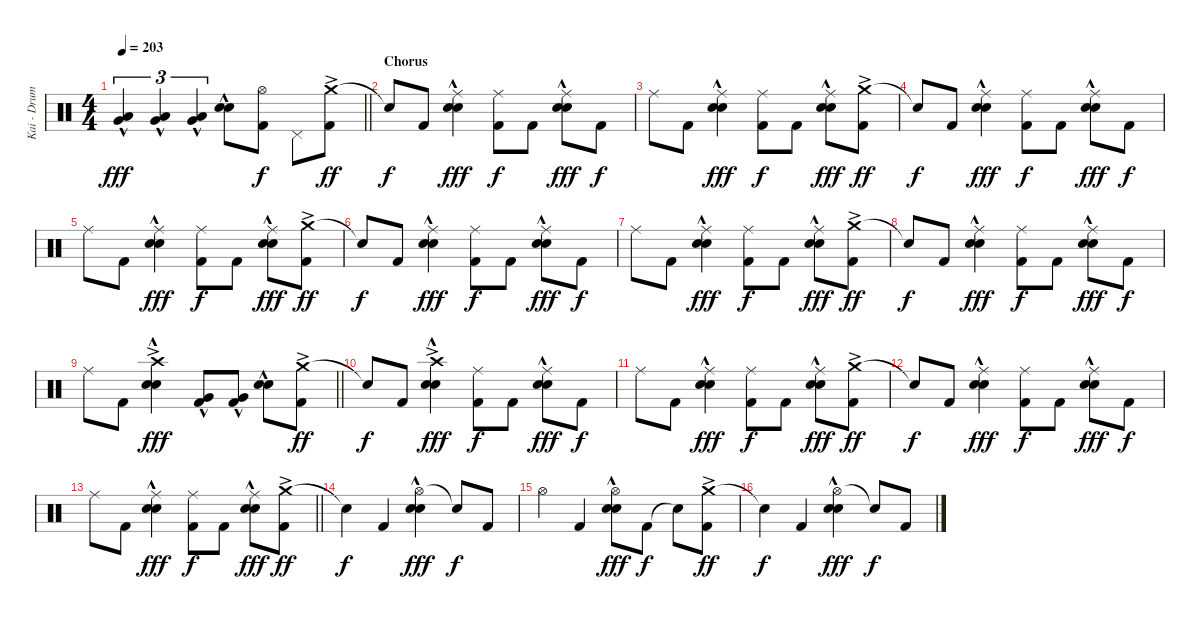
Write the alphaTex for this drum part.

\track ("Kai - Drums" "Kai - Drum") {instrument percussion}
\staff {score}
\articulation defaults
\ts (4 4)
\tempo 203
\clef neutral
\barLineRight lightlight
\ks c
("Low Tom (hit)"{hac} "Very Low Tom (hit)"{hac}).4{tu (3 2) dy fff} ("Low Tom (hit)"{hac} "Very Low Tom (hit)"{hac}).4{tu (3 2)} ("Low Tom (hit)"{hac} "Very Low Tom (hit)"{hac}).4{tu (3 2)} ("Electric Snare (hit)"{hac} "Snare (hit) 2"{hac}).8 ("Hi-Hat (open)" "Kick (hit) 2").8{dy f} "Pedal Hi-Hat (hit)".8 ("Crash medium (hit)"{ac} "Kick (hit) 2").8{dy ff} |
\section ("" "Chorus")
"Snare (hit)"{t}.8{dy f} "Kick (hit) 2".8 ("Ride (middle)" "Electric Snare (hit)"{hac} "Snare (hit) 2"{hac}).4{dy fff} ("Ride (middle)" "Kick (hit) 2").8{dy f} "Kick (hit) 2".8 ("Ride (middle)" "Electric Snare (hit)"{hac} "Snare (hit) 2"{hac}).8{dy fff} "Kick (hit) 2".8{dy f} |
"Ride (middle)".8 "Kick (hit) 2".8 ("Ride (middle)" "Electric Snare (hit)"{hac} "Snare (hit) 2"{hac}).4{dy fff} ("Ride (middle)" "Kick (hit) 2").8{dy f} "Kick (hit) 2".8 ("Ride (middle)" "Electric Snare (hit)"{hac} "Snare (hit) 2"{hac}).8{dy fff} ("Crash medium (hit)"{ac} "Kick (hit) 2").8{dy ff} |
"Snare (hit)"{t}.8{dy f} "Kick (hit) 2".8 ("Ride (middle)" "Electric Snare (hit)"{hac} "Snare (hit) 2"{hac}).4{dy fff} ("Ride (middle)" "Kick (hit) 2").8{dy f} "Kick (hit) 2".8 ("Ride (middle)" "Electric Snare (hit)"{hac} "Snare (hit) 2"{hac}).8{dy fff} "Kick (hit) 2".8{dy f} |
"Ride (middle)".8 "Kick (hit) 2".8 ("Ride (middle)" "Electric Snare (hit)"{hac} "Snare (hit) 2"{hac}).4{dy fff} ("Ride (middle)" "Kick (hit) 2").8{dy f} "Kick (hit) 2".8 ("Ride (middle)" "Electric Snare (hit)"{hac} "Snare (hit) 2"{hac}).8{dy fff} ("Crash medium (hit)"{ac} "Kick (hit) 2").8{dy ff} |
"Snare (hit)"{t}.8{dy f} "Kick (hit) 2".8 ("Ride (middle)" "Electric Snare (hit)"{hac} "Snare (hit) 2"{hac}).4{dy fff} ("Ride (middle)" "Kick (hit) 2").8{dy f} "Kick (hit) 2".8 ("Ride (middle)" "Electric Snare (hit)"{hac} "Snare (hit) 2"{hac}).8{dy fff} "Kick (hit) 2".8{dy f} |
"Ride (middle)".8 "Kick (hit) 2".8 ("Ride (middle)" "Electric Snare (hit)"{hac} "Snare (hit) 2"{hac}).4{dy fff} ("Ride (middle)" "Kick (hit) 2").8{dy f} "Kick (hit) 2".8 ("Ride (middle)" "Electric Snare (hit)"{hac} "Snare (hit) 2"{hac}).8{dy fff} ("Crash medium (hit)"{ac} "Kick (hit) 2").8{dy ff} |
"Snare (hit)"{t}.8{dy f} "Kick (hit) 2".8 ("Ride (middle)" "Electric Snare (hit)"{hac} "Snare (hit) 2"{hac}).4{dy fff} ("Ride (middle)" "Kick (hit) 2").8{dy f} "Kick (hit) 2".8 ("Ride (middle)" "Electric Snare (hit)"{hac} "Snare (hit) 2"{hac}).8{dy fff} "Kick (hit) 2".8{dy f} |
\barLineRight lightlight "Ride (middle)".8 "Kick (hit) 2".8
("Crash high (hit)"{ac} "Electric Snare (hit)"{hac} "Snare (hit) 2"{hac}).4{dy fff} ("Very Low Tom (hit)"{hac} "Kick (hit) 2").8 ("Very Low Tom (hit)"{hac} "Kick (hit) 2").8 ("Electric Snare (hit)"{hac} "Snare (hit) 2"{hac}).8 ("Crash medium (hit)"{ac} "Kick (hit) 2").8{dy ff} |
\section ("" "")
"Snare (hit)"{t}.8{dy f} "Kick (hit) 2".8 ("Crash high (hit)"{ac} "Electric Snare (hit)"{hac} "Snare (hit) 2"{hac}).4{dy fff} ("Ride (middle)" "Kick (hit) 2").8{dy f} "Kick (hit) 2".8 ("Ride (middle)" "Electric Snare (hit)"{hac} "Snare (hit) 2"{hac}).8{dy fff} "Kick (hit) 2".8{dy f} |
"Ride (middle)".8 "Kick (hit) 2".8 ("Ride (middle)" "Electric Snare (hit)"{hac} "Snare (hit) 2"{hac}).4{dy fff} ("Ride (middle)" "Kick (hit) 2").8{dy f} "Kick (hit) 2".8 ("Ride (middle)" "Electric Snare (hit)"{hac} "Snare (hit) 2"{hac}).8{dy fff} ("Crash medium (hit)"{ac} "Kick (hit) 2").8{dy ff} |
"Snare (hit)"{t}.8{dy f} "Kick (hit) 2".8 ("Ride (middle)" "Electric Snare (hit)"{hac} "Snare (hit) 2"{hac}).4{dy fff} ("Ride (middle)" "Kick (hit) 2").8{dy f} "Kick (hit) 2".8 ("Ride (middle)" "Electric Snare (hit)"{hac} "Snare (hit) 2"{hac}).8{dy fff} "Kick (hit) 2".8{dy f} |
\barLineRight lightlight "Ride (middle)".8 "Kick (hit) 2".8
("Ride (middle)" "Electric Snare (hit)"{hac} "Snare (hit) 2"{hac}).4{dy fff} ("Ride (middle)" "Kick (hit) 2").8{dy f} "Kick (hit) 2".8 ("Ride (middle)" "Electric Snare (hit)"{hac} "Snare (hit) 2"{hac}).8{dy fff} ("Crash medium (hit)"{ac} "Kick (hit) 2").8{dy ff} |
"Snare (hit)"{t}.4{dy f} "Kick (hit) 2".4 ("Hi-Hat (open)" "Electric Snare (hit)"{hac} "Snare (hit) 2"{hac}).4{dy fff} "Snare (hit)"{t}.8{dy f} "Kick (hit) 2".8 |
"Hi-Hat (open)".4 "Kick (hit) 2".4 ("Hi-Hat (open)" "Electric Snare (hit)"{hac} "Snare (hit) 2"{hac}).8{dy fff} "Kick (hit) 2".8{dy f} "Snare (hit)"{t}.8 ("Crash medium (hit)"{ac} "Kick (hit) 2").8{dy ff} |
"Snare (hit)"{t}.4{dy f} "Kick (hit) 2".4 ("Hi-Hat (open)" "Electric Snare (hit)"{hac} "Snare (hit) 2"{hac}).4{dy fff} "Snare (hit)"{t}.8{dy f} "Kick (hit) 2".8
